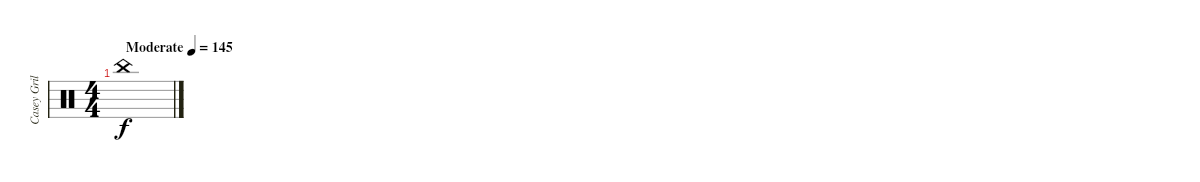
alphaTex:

\track ("Casey Grillo" "Casey Gril") {instrument percussion}
\staff {score}
\articulation defaults
\ts (4 4)
\tempo (145 "Moderate")
\clef neutral
\ks c "China (hit)".1{dy f}
